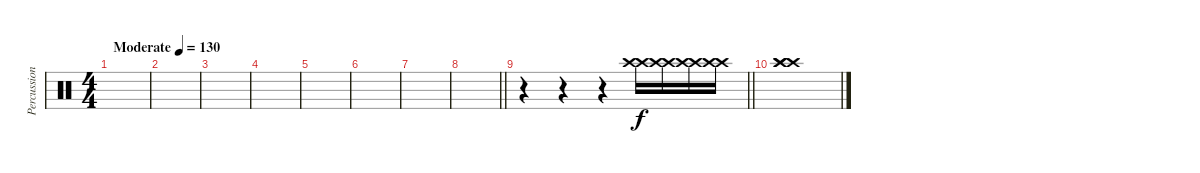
\track ("Percussion" "Percussion") {instrument percussion}
\staff {score}
\articulation defaults
\ts (4 4)
\tempo (130 "Moderate")
\clef neutral
\ks c
|
|
|
|
|
|
|
\barLineRight lightlight
|
\barLineRight lightlight
r.4 r.4 r.4 ("Crash high (hit)" "Crash high (hit)").16 ("Crash high (hit)" "Crash high (hit)").16 ("Crash high (hit)" "Crash high (hit)").16 ("Crash high (hit)" "Crash high (hit)").16 |
("Crash high (hit)" "Crash high (hit)" "Crash high (hit)").1
